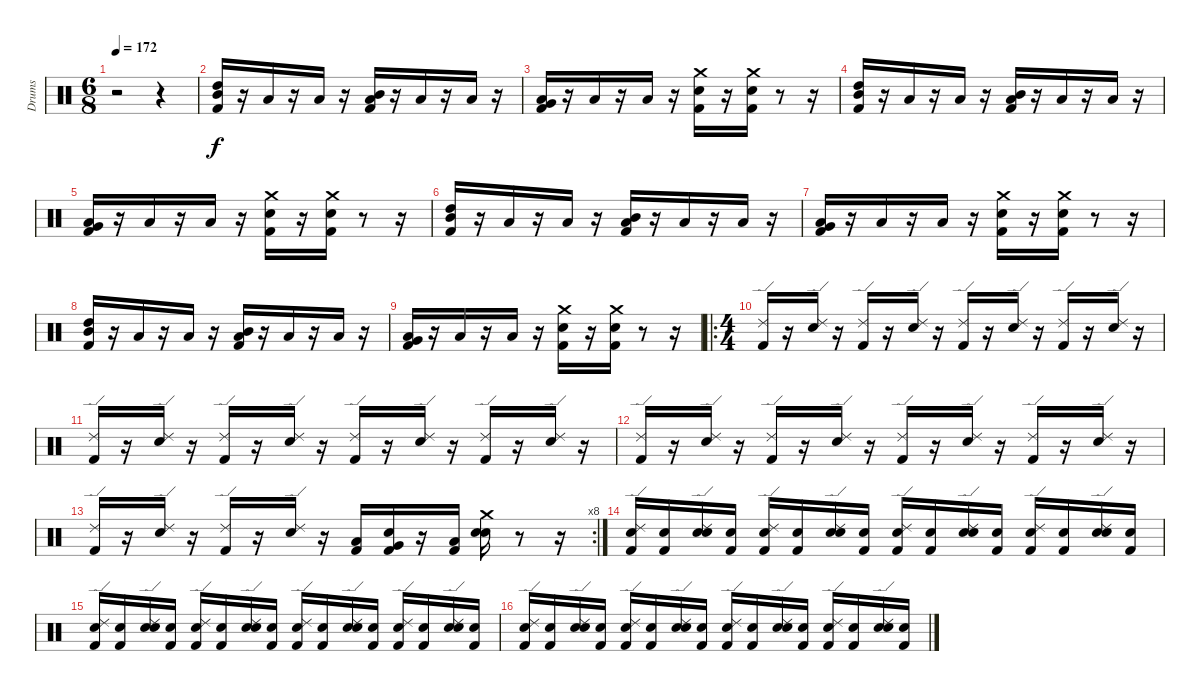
\track ("Drums" "Drums") {instrument percussion}
\staff {score}
\articulation defaults
\ts (6 8)
\tempo 172
\clef neutral
\ks c
r.2{dy f} r.4 |
("Kick (hit) 2" "Mid Tom (hit)" "High Tom (hit)").16 r.16 "Low Floor Tom (hit)".16 r.16 "Low Floor Tom (hit)".16 r.16 ("Kick (hit) 2" "Low Tom (hit)" "Mid Tom (hit)").16 r.16 "Low Floor Tom (hit)".16 r.16 "Low Floor Tom (hit)".16 r.16 |
("Kick (hit) 2" "Very Low Tom (hit)" "Low Tom (hit)").16 r.16 "Low Floor Tom (hit)".16 r.16 "Low Floor Tom (hit)".16 r.16 ("Kick (hit) 2" "Snare (hit) 2" "Crash medium (hit)").16 r.16 ("Kick (hit) 2" "Snare (hit) 2" "Crash medium (hit)").16 r.8 r.16 |
("Kick (hit) 2" "Mid Tom (hit)" "High Tom (hit)").16 r.16 "Low Floor Tom (hit)".16 r.16 "Low Floor Tom (hit)".16 r.16 ("Kick (hit) 2" "Low Tom (hit)" "Mid Tom (hit)").16 r.16 "Low Floor Tom (hit)".16 r.16 "Low Floor Tom (hit)".16 r.16 |
("Kick (hit) 2" "Very Low Tom (hit)" "Low Tom (hit)").16 r.16 "Low Floor Tom (hit)".16 r.16 "Low Floor Tom (hit)".16 r.16 ("Kick (hit) 2" "Snare (hit) 2" "Crash medium (hit)").16 r.16 ("Kick (hit) 2" "Snare (hit) 2" "Crash medium (hit)").16 r.8 r.16 |
("Kick (hit) 2" "Mid Tom (hit)" "High Tom (hit)").16 r.16 "Low Floor Tom (hit)".16 r.16 "Low Floor Tom (hit)".16 r.16 ("Kick (hit) 2" "Low Tom (hit)" "Mid Tom (hit)").16 r.16 "Low Floor Tom (hit)".16 r.16 "Low Floor Tom (hit)".16 r.16 |
("Kick (hit) 2" "Very Low Tom (hit)" "Low Tom (hit)").16 r.16 "Low Floor Tom (hit)".16 r.16 "Low Floor Tom (hit)".16 r.16 ("Kick (hit) 2" "Snare (hit) 2" "Crash medium (hit)").16 r.16 ("Kick (hit) 2" "Snare (hit) 2" "Crash medium (hit)").16 r.8 r.16 |
("Kick (hit) 2" "Mid Tom (hit)" "High Tom (hit)").16 r.16 "Low Floor Tom (hit)".16 r.16 "Low Floor Tom (hit)".16 r.16 ("Kick (hit) 2" "Low Tom (hit)" "Mid Tom (hit)").16 r.16 "Low Floor Tom (hit)".16 r.16 "Low Floor Tom (hit)".16 r.16 |
("Kick (hit) 2" "Very Low Tom (hit)" "Low Tom (hit)").16 r.16 "Low Floor Tom (hit)".16 r.16 "Low Floor Tom (hit)".16 r.16 ("Kick (hit) 2" "Snare (hit) 2" "Crash medium (hit)").16 r.16 ("Kick (hit) 2" "Snare (hit) 2" "Crash medium (hit)").16 r.8 r.16 |
\ro
\ts (4 4)
("Kick (hit) 2" "Ride (edge) 2").16 r.16 ("Snare (hit) 2" "Ride (edge) 2").16 r.16 ("Kick (hit) 2" "Ride (edge) 2").16 r.16 ("Snare (hit) 2" "Ride (edge) 2").16 r.16 ("Kick (hit) 2" "Ride (edge) 2").16 r.16 ("Snare (hit) 2" "Ride (edge) 2").16 r.16 ("Kick (hit) 2" "Ride (edge) 2").16 r.16 ("Snare (hit) 2" "Ride (edge) 2").16 r.16 |
("Kick (hit) 2" "Ride (edge) 2").16 r.16 ("Snare (hit) 2" "Ride (edge) 2").16 r.16 ("Kick (hit) 2" "Ride (edge) 2").16 r.16 ("Snare (hit) 2" "Ride (edge) 2").16 r.16 ("Kick (hit) 2" "Ride (edge) 2").16 r.16 ("Snare (hit) 2" "Ride (edge) 2").16 r.16 ("Kick (hit) 2" "Ride (edge) 2").16 r.16 ("Snare (hit) 2" "Ride (edge) 2").16 r.16 |
("Kick (hit) 2" "Ride (edge) 2").16 r.16 ("Snare (hit) 2" "Ride (edge) 2").16 r.16 ("Kick (hit) 2" "Ride (edge) 2").16 r.16 ("Snare (hit) 2" "Ride (edge) 2").16 r.16 ("Kick (hit) 2" "Ride (edge) 2").16 r.16 ("Snare (hit) 2" "Ride (edge) 2").16 r.16 ("Kick (hit) 2" "Ride (edge) 2").16 r.16 ("Snare (hit) 2" "Ride (edge) 2").16 r.16 |
\rc 8
("Kick (hit) 2" "Ride (edge) 2").16 r.16 ("Snare (hit) 2" "Ride (edge) 2").16 r.16 ("Kick (hit) 2" "Ride (edge) 2").16 r.16 ("Snare (hit) 2" "Ride (edge) 2").16 r.16 ("Kick (hit) 2" "Low Tom (hit)").16 ("Snare (hit)" "Kick (hit) 2" "Very Low Tom (hit)").16 r.16 ("Kick (hit) 2" "Low Floor Tom (hit)").16 ("Snare (hit)" "Snare (hit) 2" "Crash medium (hit)").16 r.8 r.16 |
("Snare (hit)" "Kick (hit) 2" "Ride (edge) 2").16 ("Snare (hit)" "Kick (hit) 2").16 ("Snare (hit)" "Snare (hit) 2" "Ride (edge) 2").16 ("Snare (hit)" "Kick (hit) 2").16 ("Snare (hit)" "Kick (hit) 2" "Ride (edge) 2").16 ("Snare (hit)" "Kick (hit) 2").16 ("Snare (hit)" "Snare (hit) 2" "Ride (edge) 2").16 ("Snare (hit)" "Kick (hit) 2").16 ("Snare (hit)" "Kick (hit) 2" "Ride (edge) 2").16 ("Snare (hit)" "Kick (hit) 2").16 ("Snare (hit)" "Snare (hit) 2" "Ride (edge) 2").16 ("Snare (hit)" "Kick (hit) 2").16 ("Snare (hit)" "Kick (hit) 2" "Ride (edge) 2").16 ("Snare (hit)" "Kick (hit) 2").16 ("Snare (hit)" "Snare (hit) 2" "Ride (edge) 2").16 ("Snare (hit)" "Kick (hit) 2").16 |
("Snare (hit)" "Kick (hit) 2" "Ride (edge) 2").16 ("Snare (hit)" "Kick (hit) 2").16 ("Snare (hit)" "Snare (hit) 2" "Ride (edge) 2").16 ("Snare (hit)" "Kick (hit) 2").16 ("Snare (hit)" "Kick (hit) 2" "Ride (edge) 2").16 ("Snare (hit)" "Kick (hit) 2").16 ("Snare (hit)" "Snare (hit) 2" "Ride (edge) 2").16 ("Snare (hit)" "Kick (hit) 2").16 ("Snare (hit)" "Kick (hit) 2" "Ride (edge) 2").16 ("Snare (hit)" "Kick (hit) 2").16 ("Snare (hit)" "Snare (hit) 2" "Ride (edge) 2").16 ("Snare (hit)" "Kick (hit) 2").16 ("Snare (hit)" "Kick (hit) 2" "Ride (edge) 2").16 ("Snare (hit)" "Kick (hit) 2").16 ("Snare (hit)" "Snare (hit) 2" "Ride (edge) 2").16 ("Snare (hit)" "Kick (hit) 2").16 |
("Snare (hit)" "Kick (hit) 2" "Ride (edge) 2").16 ("Snare (hit)" "Kick (hit) 2").16 ("Snare (hit)" "Snare (hit) 2" "Ride (edge) 2").16 ("Snare (hit)" "Kick (hit) 2").16 ("Snare (hit)" "Kick (hit) 2" "Ride (edge) 2").16 ("Snare (hit)" "Kick (hit) 2").16 ("Snare (hit)" "Snare (hit) 2" "Ride (edge) 2").16 ("Snare (hit)" "Kick (hit) 2").16 ("Snare (hit)" "Kick (hit) 2" "Ride (edge) 2").16 ("Snare (hit)" "Kick (hit) 2").16 ("Snare (hit)" "Snare (hit) 2" "Ride (edge) 2").16 ("Snare (hit)" "Kick (hit) 2").16 ("Snare (hit)" "Kick (hit) 2" "Ride (edge) 2").16 ("Snare (hit)" "Kick (hit) 2").16 ("Snare (hit)" "Snare (hit) 2" "Ride (edge) 2").16 ("Snare (hit)" "Kick (hit) 2").16
